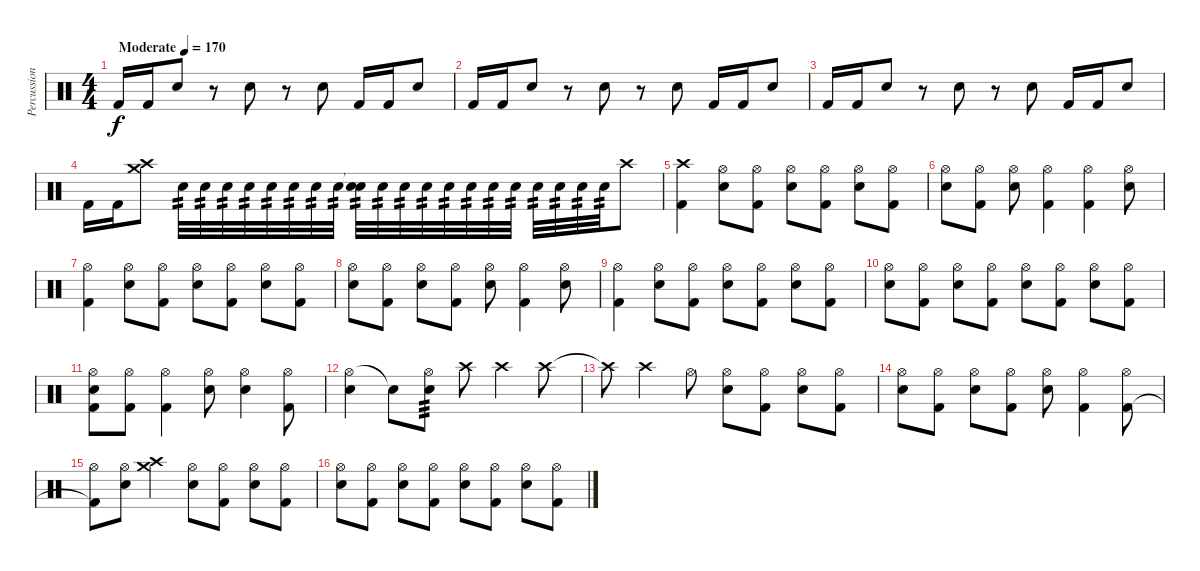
\track ("Percussion" "Percussion") {instrument percussion}
\staff {score}
\articulation defaults
\ts (4 4)
\tempo (170 "Moderate")
\clef neutral
\ks c "Kick (hit) 2".16{dy f} "Kick (hit) 2".16 "Electric Snare (hit)".8
r.8 "Electric Snare (hit)".8 r.8 "Electric Snare (hit)".8 "Kick (hit) 2".16 "Kick (hit) 2".16 "Electric Snare (hit)".8 |
"Kick (hit) 2".16 "Kick (hit) 2".16 "Electric Snare (hit)".8 r.8 "Electric Snare (hit)".8 r.8 "Electric Snare (hit)".8 "Kick (hit) 2".16 "Kick (hit) 2".16 "Electric Snare (hit)".8 |
"Kick (hit) 2".16 "Kick (hit) 2".16 "Electric Snare (hit)".8 r.8 "Electric Snare (hit)".8 r.8 "Electric Snare (hit)".8 "Kick (hit) 2".16 "Kick (hit) 2".16 "Electric Snare (hit)".8 |
"Kick (hit) 2".16 "Kick (hit) 2".16 ("Crash high (hit)" "Crash medium (hit)").8 "Electric Snare (hit)".32{tp 2} "Electric Snare (hit)".32{tp 2} "Electric Snare (hit)".32{tp 2} "Electric Snare (hit)".32{tp 2} "Electric Snare (hit)".32{tp 2} "Electric Snare (hit)".32{tp 2} "Electric Snare (hit)".32{tp 2} "Electric Snare (hit)".32{tp 2} ("Snare (hit)"{t} "Electric Snare (hit)").32{tp 2} "Electric Snare (hit)".32{tp 2} "Electric Snare (hit)".32{tp 2} "Electric Snare (hit)".32{tp 2} "Electric Snare (hit)".32{tp 2} "Electric Snare (hit)".32{tp 2} "Electric Snare (hit)".32{tp 2} "Electric Snare (hit)".32{tp 2} "Electric Snare (hit)".32{tp 2} "Electric Snare (hit)".32{tp 2} "Electric Snare (hit)".32{tp 2} "Electric Snare (hit)".32{tp 2} "Crash high (hit)".8 |
("Crash high (hit)" "Kick (hit) 2").4 ("Hi-Hat (open)" "Electric Snare (hit)").8 ("Hi-Hat (open)" "Kick (hit) 2").8 ("Hi-Hat (open)" "Electric Snare (hit)").8 ("Hi-Hat (open)" "Kick (hit) 2").8 ("Hi-Hat (open)" "Electric Snare (hit)").8 ("Hi-Hat (open)" "Kick (hit) 2").8 |
("Hi-Hat (open)" "Electric Snare (hit)").8 ("Hi-Hat (open)" "Kick (hit) 2").8 ("Hi-Hat (open)" "Electric Snare (hit)").8 ("Hi-Hat (open)" "Kick (hit) 2").4 ("Hi-Hat (open)" "Kick (hit) 2").4 ("Hi-Hat (open)" "Electric Snare (hit)").8 |
("Hi-Hat (open)" "Kick (hit) 2").4 ("Hi-Hat (open)" "Electric Snare (hit)").8 ("Hi-Hat (open)" "Kick (hit) 2").8 ("Hi-Hat (open)" "Electric Snare (hit)").8 ("Hi-Hat (open)" "Kick (hit) 2").8 ("Hi-Hat (open)" "Electric Snare (hit)").8 ("Hi-Hat (open)" "Kick (hit) 2").8 |
("Hi-Hat (open)" "Electric Snare (hit)").8 ("Hi-Hat (open)" "Kick (hit) 2").8 ("Hi-Hat (open)" "Electric Snare (hit)").8 ("Hi-Hat (open)" "Kick (hit) 2").8 ("Hi-Hat (open)" "Electric Snare (hit)").8 ("Hi-Hat (open)" "Kick (hit) 2").4 ("Hi-Hat (open)" "Electric Snare (hit)").8 |
("Hi-Hat (open)" "Kick (hit) 2").4 ("Hi-Hat (open)" "Electric Snare (hit)").8 ("Hi-Hat (open)" "Kick (hit) 2").8 ("Hi-Hat (open)" "Electric Snare (hit)").8 ("Hi-Hat (open)" "Kick (hit) 2").8 ("Hi-Hat (open)" "Electric Snare (hit)").8 ("Hi-Hat (open)" "Kick (hit) 2").8 |
("Hi-Hat (open)" "Electric Snare (hit)").8 ("Hi-Hat (open)" "Kick (hit) 2").8 ("Hi-Hat (open)" "Electric Snare (hit)").8 ("Hi-Hat (open)" "Kick (hit) 2").8 ("Hi-Hat (open)" "Electric Snare (hit)").8 ("Hi-Hat (open)" "Kick (hit) 2").8 ("Hi-Hat (open)" "Electric Snare (hit)").8 ("Hi-Hat (open)" "Kick (hit) 2").8 |
("Hi-Hat (open)" "Electric Snare (hit)" "Kick (hit) 2").8 ("Hi-Hat (open)" "Kick (hit) 2").8 ("Hi-Hat (open)" "Kick (hit) 2").4 ("Hi-Hat (open)" "Electric Snare (hit)").8 ("Hi-Hat (open)" "Electric Snare (hit)").4 ("Hi-Hat (open)" "Kick (hit) 2").8 |
("Hi-Hat (open)" "Electric Snare (hit)").4 "Electric Snare (hit)"{t}.8 ("Hi-Hat (open)" "Electric Snare (hit)").8{tp 3} "Crash high (hit)".8 "Crash high (hit)".4 "Crash high (hit)".8 |
"Crash high (hit)"{t}.8 "Crash high (hit)".4 "Hi-Hat (open)".8 ("Hi-Hat (open)" "Electric Snare (hit)").8 ("Hi-Hat (open)" "Kick (hit) 2").8 ("Hi-Hat (open)" "Electric Snare (hit)").8 ("Hi-Hat (open)" "Kick (hit) 2").8 |
("Hi-Hat (open)" "Electric Snare (hit)").8 ("Hi-Hat (open)" "Kick (hit) 2").8 ("Hi-Hat (open)" "Electric Snare (hit)").8 ("Hi-Hat (open)" "Kick (hit) 2").8 ("Hi-Hat (open)" "Electric Snare (hit)").8 ("Hi-Hat (open)" "Kick (hit) 2").4 ("Hi-Hat (open)" "Kick (hit) 2").8 |
("Hi-Hat (open)" "Kick (hit) 2"{t}).8 ("Hi-Hat (open)" "Electric Snare (hit)").8 ("Crash high (hit)" "Crash medium (hit)").4 ("Hi-Hat (open)" "Electric Snare (hit)").8 ("Hi-Hat (open)" "Kick (hit) 2").8 ("Hi-Hat (open)" "Electric Snare (hit)").8 ("Hi-Hat (open)" "Kick (hit) 2").8 |
("Hi-Hat (open)" "Electric Snare (hit)").8 ("Hi-Hat (open)" "Kick (hit) 2").8 ("Hi-Hat (open)" "Electric Snare (hit)").8 ("Hi-Hat (open)" "Kick (hit) 2").8 ("Hi-Hat (open)" "Electric Snare (hit)").8 ("Hi-Hat (open)" "Kick (hit) 2").8 ("Hi-Hat (open)" "Electric Snare (hit)").8 ("Hi-Hat (open)" "Kick (hit) 2").8
